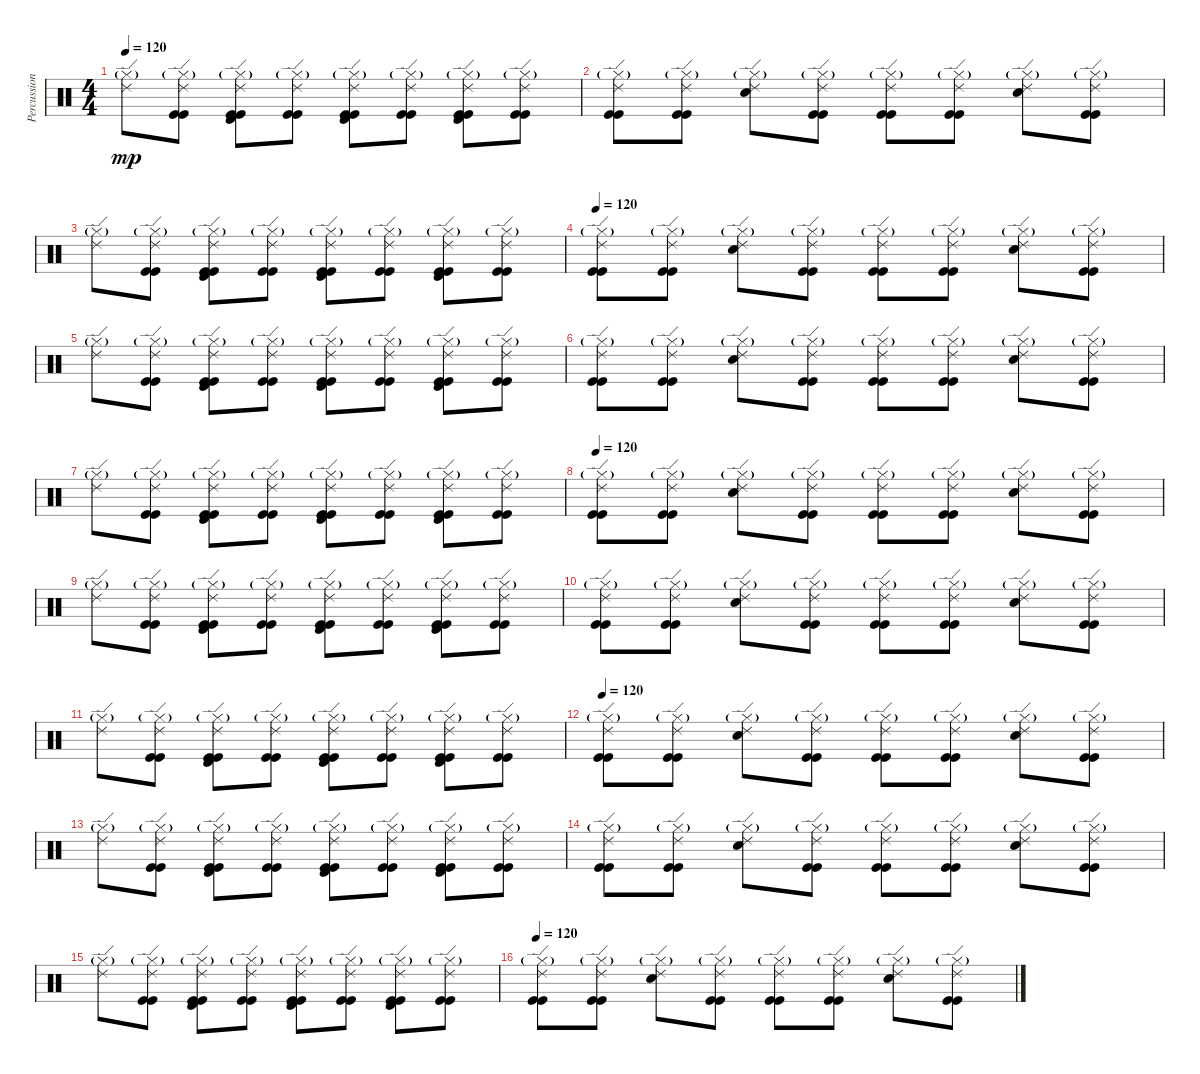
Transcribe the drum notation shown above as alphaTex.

\track ("Percussion" "Percussion") {instrument percussion}
\staff {score}
\articulation defaults
\ts (4 4)
\tempo 120
\clef neutral
\ks c
("Hi-Hat (closed)"{g} "Ride (edge) 2").8{dy mp} ("Hi-Hat (closed)"{g} "Ride (edge) 2" "Kick (hit)" "Kick (hit)").8 ("Hi-Hat (closed)"{g} "Ride (edge) 2" "Timbale high (hit)" "Kick (hit)" "Kick (hit)").8 ("Hi-Hat (closed)"{g} "Ride (edge) 2" "Kick (hit)" "Kick (hit)").8 ("Hi-Hat (closed)"{g} "Ride (edge) 2" "Timbale high (hit)" "Kick (hit)" "Kick (hit)").8 ("Hi-Hat (closed)"{g} "Ride (edge) 2" "Kick (hit)" "Kick (hit)").8 ("Hi-Hat (closed)"{g} "Ride (edge) 2" "Timbale high (hit)" "Kick (hit)" "Kick (hit)").8 ("Hi-Hat (closed)"{g} "Ride (edge) 2" "Kick (hit)" "Kick (hit)").8 |
("Hi-Hat (closed)"{g} "Ride (edge) 2" "Kick (hit)" "Kick (hit)").8 ("Hi-Hat (closed)"{g} "Ride (edge) 2" "Kick (hit)" "Kick (hit)").8 ("Hi-Hat (closed)"{g} "Ride (edge) 2" "Snare (hit) 2").8 ("Hi-Hat (closed)"{g} "Ride (edge) 2" "Kick (hit)" "Kick (hit)").8 ("Hi-Hat (closed)"{g} "Ride (edge) 2" "Kick (hit)" "Kick (hit)").8 ("Hi-Hat (closed)"{g} "Ride (edge) 2" "Kick (hit)" "Kick (hit)").8 ("Hi-Hat (closed)"{g} "Ride (edge) 2" "Snare (hit) 2").8 ("Hi-Hat (closed)"{g} "Ride (edge) 2" "Kick (hit)" "Kick (hit)").8 |
("Hi-Hat (closed)"{g} "Ride (edge) 2").8 ("Hi-Hat (closed)"{g} "Ride (edge) 2" "Kick (hit)" "Kick (hit)").8 ("Hi-Hat (closed)"{g} "Ride (edge) 2" "Timbale high (hit)" "Kick (hit)" "Kick (hit)").8 ("Hi-Hat (closed)"{g} "Ride (edge) 2" "Kick (hit)" "Kick (hit)").8 ("Hi-Hat (closed)"{g} "Ride (edge) 2" "Timbale high (hit)" "Kick (hit)" "Kick (hit)").8 ("Hi-Hat (closed)"{g} "Ride (edge) 2" "Kick (hit)" "Kick (hit)").8 ("Hi-Hat (closed)"{g} "Ride (edge) 2" "Timbale high (hit)" "Kick (hit)" "Kick (hit)").8 ("Hi-Hat (closed)"{g} "Ride (edge) 2" "Kick (hit)" "Kick (hit)").8 |
\tempo 120
("Hi-Hat (closed)"{g} "Ride (edge) 2" "Kick (hit)" "Kick (hit)").8 ("Hi-Hat (closed)"{g} "Ride (edge) 2" "Kick (hit)" "Kick (hit)").8 ("Hi-Hat (closed)"{g} "Ride (edge) 2" "Snare (hit) 2").8 ("Hi-Hat (closed)"{g} "Ride (edge) 2" "Kick (hit)" "Kick (hit)").8 ("Hi-Hat (closed)"{g} "Ride (edge) 2" "Kick (hit)" "Kick (hit)").8 ("Hi-Hat (closed)"{g} "Ride (edge) 2" "Kick (hit)" "Kick (hit)").8 ("Hi-Hat (closed)"{g} "Ride (edge) 2" "Snare (hit) 2").8 ("Hi-Hat (closed)"{g} "Ride (edge) 2" "Kick (hit)" "Kick (hit)").8 |
("Hi-Hat (closed)"{g} "Ride (edge) 2").8 ("Hi-Hat (closed)"{g} "Ride (edge) 2" "Kick (hit)" "Kick (hit)").8 ("Hi-Hat (closed)"{g} "Ride (edge) 2" "Timbale high (hit)" "Kick (hit)" "Kick (hit)").8 ("Hi-Hat (closed)"{g} "Ride (edge) 2" "Kick (hit)" "Kick (hit)").8 ("Hi-Hat (closed)"{g} "Ride (edge) 2" "Timbale high (hit)" "Kick (hit)" "Kick (hit)").8 ("Hi-Hat (closed)"{g} "Ride (edge) 2" "Kick (hit)" "Kick (hit)").8 ("Hi-Hat (closed)"{g} "Ride (edge) 2" "Timbale high (hit)" "Kick (hit)" "Kick (hit)").8 ("Hi-Hat (closed)"{g} "Ride (edge) 2" "Kick (hit)" "Kick (hit)").8 |
("Hi-Hat (closed)"{g} "Ride (edge) 2" "Kick (hit)" "Kick (hit)").8 ("Hi-Hat (closed)"{g} "Ride (edge) 2" "Kick (hit)" "Kick (hit)").8 ("Hi-Hat (closed)"{g} "Ride (edge) 2" "Snare (hit) 2").8 ("Hi-Hat (closed)"{g} "Ride (edge) 2" "Kick (hit)" "Kick (hit)").8 ("Hi-Hat (closed)"{g} "Ride (edge) 2" "Kick (hit)" "Kick (hit)").8 ("Hi-Hat (closed)"{g} "Ride (edge) 2" "Kick (hit)" "Kick (hit)").8 ("Hi-Hat (closed)"{g} "Ride (edge) 2" "Snare (hit) 2").8 ("Hi-Hat (closed)"{g} "Ride (edge) 2" "Kick (hit)" "Kick (hit)").8 |
("Hi-Hat (closed)"{g} "Ride (edge) 2").8 ("Hi-Hat (closed)"{g} "Ride (edge) 2" "Kick (hit)" "Kick (hit)").8 ("Hi-Hat (closed)"{g} "Ride (edge) 2" "Timbale high (hit)" "Kick (hit)" "Kick (hit)").8 ("Hi-Hat (closed)"{g} "Ride (edge) 2" "Kick (hit)" "Kick (hit)").8 ("Hi-Hat (closed)"{g} "Ride (edge) 2" "Timbale high (hit)" "Kick (hit)" "Kick (hit)").8 ("Hi-Hat (closed)"{g} "Ride (edge) 2" "Kick (hit)" "Kick (hit)").8 ("Hi-Hat (closed)"{g} "Ride (edge) 2" "Timbale high (hit)" "Kick (hit)" "Kick (hit)").8 ("Hi-Hat (closed)"{g} "Ride (edge) 2" "Kick (hit)" "Kick (hit)").8 |
\tempo 120
("Hi-Hat (closed)"{g} "Ride (edge) 2" "Kick (hit)" "Kick (hit)").8 ("Hi-Hat (closed)"{g} "Ride (edge) 2" "Kick (hit)" "Kick (hit)").8 ("Hi-Hat (closed)"{g} "Ride (edge) 2" "Snare (hit) 2").8 ("Hi-Hat (closed)"{g} "Ride (edge) 2" "Kick (hit)" "Kick (hit)").8 ("Hi-Hat (closed)"{g} "Ride (edge) 2" "Kick (hit)" "Kick (hit)").8 ("Hi-Hat (closed)"{g} "Ride (edge) 2" "Kick (hit)" "Kick (hit)").8 ("Hi-Hat (closed)"{g} "Ride (edge) 2" "Snare (hit) 2").8 ("Hi-Hat (closed)"{g} "Ride (edge) 2" "Kick (hit)" "Kick (hit)").8 |
("Hi-Hat (closed)"{g} "Ride (edge) 2").8 ("Hi-Hat (closed)"{g} "Ride (edge) 2" "Kick (hit)" "Kick (hit)").8 ("Hi-Hat (closed)"{g} "Ride (edge) 2" "Timbale high (hit)" "Kick (hit)" "Kick (hit)").8 ("Hi-Hat (closed)"{g} "Ride (edge) 2" "Kick (hit)" "Kick (hit)").8 ("Hi-Hat (closed)"{g} "Ride (edge) 2" "Timbale high (hit)" "Kick (hit)" "Kick (hit)").8 ("Hi-Hat (closed)"{g} "Ride (edge) 2" "Kick (hit)" "Kick (hit)").8 ("Hi-Hat (closed)"{g} "Ride (edge) 2" "Timbale high (hit)" "Kick (hit)" "Kick (hit)").8 ("Hi-Hat (closed)"{g} "Ride (edge) 2" "Kick (hit)" "Kick (hit)").8 |
("Hi-Hat (closed)"{g} "Ride (edge) 2" "Kick (hit)" "Kick (hit)").8 ("Hi-Hat (closed)"{g} "Ride (edge) 2" "Kick (hit)" "Kick (hit)").8 ("Hi-Hat (closed)"{g} "Ride (edge) 2" "Snare (hit) 2").8 ("Hi-Hat (closed)"{g} "Ride (edge) 2" "Kick (hit)" "Kick (hit)").8 ("Hi-Hat (closed)"{g} "Ride (edge) 2" "Kick (hit)" "Kick (hit)").8 ("Hi-Hat (closed)"{g} "Ride (edge) 2" "Kick (hit)" "Kick (hit)").8 ("Hi-Hat (closed)"{g} "Ride (edge) 2" "Snare (hit) 2").8 ("Hi-Hat (closed)"{g} "Ride (edge) 2" "Kick (hit)" "Kick (hit)").8 |
("Hi-Hat (closed)"{g} "Ride (edge) 2").8 ("Hi-Hat (closed)"{g} "Ride (edge) 2" "Kick (hit)" "Kick (hit)").8 ("Hi-Hat (closed)"{g} "Ride (edge) 2" "Timbale high (hit)" "Kick (hit)" "Kick (hit)").8 ("Hi-Hat (closed)"{g} "Ride (edge) 2" "Kick (hit)" "Kick (hit)").8 ("Hi-Hat (closed)"{g} "Ride (edge) 2" "Timbale high (hit)" "Kick (hit)" "Kick (hit)").8 ("Hi-Hat (closed)"{g} "Ride (edge) 2" "Kick (hit)" "Kick (hit)").8 ("Hi-Hat (closed)"{g} "Ride (edge) 2" "Timbale high (hit)" "Kick (hit)" "Kick (hit)").8 ("Hi-Hat (closed)"{g} "Ride (edge) 2" "Kick (hit)" "Kick (hit)").8 |
\tempo 120
("Hi-Hat (closed)"{g} "Ride (edge) 2" "Kick (hit)" "Kick (hit)").8 ("Hi-Hat (closed)"{g} "Ride (edge) 2" "Kick (hit)" "Kick (hit)").8 ("Hi-Hat (closed)"{g} "Ride (edge) 2" "Snare (hit) 2").8 ("Hi-Hat (closed)"{g} "Ride (edge) 2" "Kick (hit)" "Kick (hit)").8 ("Hi-Hat (closed)"{g} "Ride (edge) 2" "Kick (hit)" "Kick (hit)").8 ("Hi-Hat (closed)"{g} "Ride (edge) 2" "Kick (hit)" "Kick (hit)").8 ("Hi-Hat (closed)"{g} "Ride (edge) 2" "Snare (hit) 2").8 ("Hi-Hat (closed)"{g} "Ride (edge) 2" "Kick (hit)" "Kick (hit)").8 |
("Hi-Hat (closed)"{g} "Ride (edge) 2").8 ("Hi-Hat (closed)"{g} "Ride (edge) 2" "Kick (hit)" "Kick (hit)").8 ("Hi-Hat (closed)"{g} "Ride (edge) 2" "Timbale high (hit)" "Kick (hit)" "Kick (hit)").8 ("Hi-Hat (closed)"{g} "Ride (edge) 2" "Kick (hit)" "Kick (hit)").8 ("Hi-Hat (closed)"{g} "Ride (edge) 2" "Timbale high (hit)" "Kick (hit)" "Kick (hit)").8 ("Hi-Hat (closed)"{g} "Ride (edge) 2" "Kick (hit)" "Kick (hit)").8 ("Hi-Hat (closed)"{g} "Ride (edge) 2" "Timbale high (hit)" "Kick (hit)" "Kick (hit)").8 ("Hi-Hat (closed)"{g} "Ride (edge) 2" "Kick (hit)" "Kick (hit)").8 |
("Hi-Hat (closed)"{g} "Ride (edge) 2" "Kick (hit)" "Kick (hit)").8 ("Hi-Hat (closed)"{g} "Ride (edge) 2" "Kick (hit)" "Kick (hit)").8 ("Hi-Hat (closed)"{g} "Ride (edge) 2" "Snare (hit) 2").8 ("Hi-Hat (closed)"{g} "Ride (edge) 2" "Kick (hit)" "Kick (hit)").8 ("Hi-Hat (closed)"{g} "Ride (edge) 2" "Kick (hit)" "Kick (hit)").8 ("Hi-Hat (closed)"{g} "Ride (edge) 2" "Kick (hit)" "Kick (hit)").8 ("Hi-Hat (closed)"{g} "Ride (edge) 2" "Snare (hit) 2").8 ("Hi-Hat (closed)"{g} "Ride (edge) 2" "Kick (hit)" "Kick (hit)").8 |
("Hi-Hat (closed)"{g} "Ride (edge) 2").8 ("Hi-Hat (closed)"{g} "Ride (edge) 2" "Kick (hit)" "Kick (hit)").8 ("Hi-Hat (closed)"{g} "Ride (edge) 2" "Timbale high (hit)" "Kick (hit)" "Kick (hit)").8 ("Hi-Hat (closed)"{g} "Ride (edge) 2" "Kick (hit)" "Kick (hit)").8 ("Hi-Hat (closed)"{g} "Ride (edge) 2" "Timbale high (hit)" "Kick (hit)" "Kick (hit)").8 ("Hi-Hat (closed)"{g} "Ride (edge) 2" "Kick (hit)" "Kick (hit)").8 ("Hi-Hat (closed)"{g} "Ride (edge) 2" "Timbale high (hit)" "Kick (hit)" "Kick (hit)").8 ("Hi-Hat (closed)"{g} "Ride (edge) 2" "Kick (hit)" "Kick (hit)").8 |
\tempo 120
("Hi-Hat (closed)"{g} "Ride (edge) 2" "Kick (hit)" "Kick (hit)").8 ("Hi-Hat (closed)"{g} "Ride (edge) 2" "Kick (hit)" "Kick (hit)").8 ("Hi-Hat (closed)"{g} "Ride (edge) 2" "Snare (hit) 2").8 ("Hi-Hat (closed)"{g} "Ride (edge) 2" "Kick (hit)" "Kick (hit)").8 ("Hi-Hat (closed)"{g} "Ride (edge) 2" "Kick (hit)" "Kick (hit)").8 ("Hi-Hat (closed)"{g} "Ride (edge) 2" "Kick (hit)" "Kick (hit)").8 ("Hi-Hat (closed)"{g} "Ride (edge) 2" "Snare (hit) 2").8 ("Hi-Hat (closed)"{g} "Ride (edge) 2" "Kick (hit)" "Kick (hit)").8
